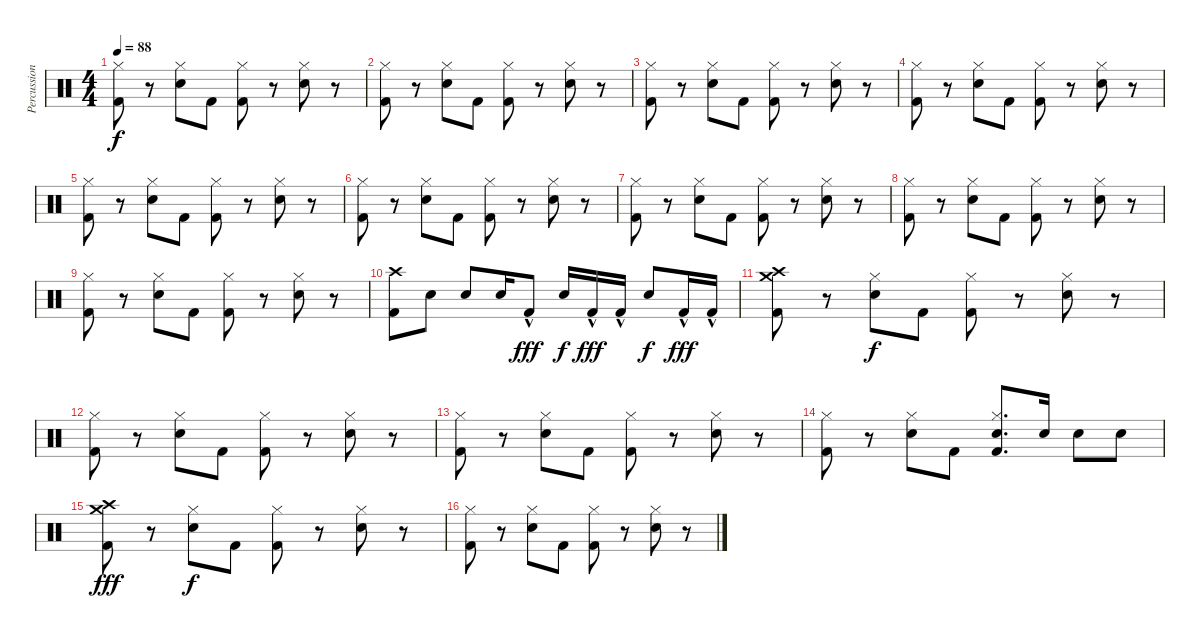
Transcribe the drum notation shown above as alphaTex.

\track ("Percussion" "Percussion") {instrument percussion}
\staff {score}
\articulation defaults
\ts (4 4)
\tempo 88
\clef neutral
\ks c
("Kick (hit) 2" "Hi-Hat (closed)").8{dy f} r.8 ("Snare (hit) 2" "Hi-Hat (closed)").8 "Kick (hit) 2".8 ("Kick (hit) 2" "Hi-Hat (closed)").8 r.8 ("Snare (hit) 2" "Hi-Hat (closed)").8 r.8 |
("Kick (hit) 2" "Hi-Hat (closed)").8 r.8 ("Snare (hit) 2" "Hi-Hat (closed)").8 "Kick (hit) 2".8 ("Kick (hit) 2" "Hi-Hat (closed)").8 r.8 ("Snare (hit) 2" "Hi-Hat (closed)").8 r.8 |
("Kick (hit) 2" "Hi-Hat (closed)").8 r.8 ("Snare (hit) 2" "Hi-Hat (closed)").8 "Kick (hit) 2".8 ("Kick (hit) 2" "Hi-Hat (closed)").8 r.8 ("Snare (hit) 2" "Hi-Hat (closed)").8 r.8 |
("Kick (hit) 2" "Hi-Hat (closed)").8 r.8 ("Snare (hit) 2" "Hi-Hat (closed)").8 "Kick (hit) 2".8 ("Kick (hit) 2" "Hi-Hat (closed)").8 r.8 ("Snare (hit) 2" "Hi-Hat (closed)").8 r.8 |
("Kick (hit) 2" "Hi-Hat (closed)").8 r.8 ("Snare (hit) 2" "Hi-Hat (closed)").8 "Kick (hit) 2".8 ("Kick (hit) 2" "Hi-Hat (closed)").8 r.8 ("Snare (hit) 2" "Hi-Hat (closed)").8 r.8 |
("Kick (hit) 2" "Hi-Hat (closed)").8 r.8 ("Snare (hit) 2" "Hi-Hat (closed)").8 "Kick (hit) 2".8 ("Kick (hit) 2" "Hi-Hat (closed)").8 r.8 ("Snare (hit) 2" "Hi-Hat (closed)").8 r.8 |
("Kick (hit) 2" "Hi-Hat (closed)").8 r.8 ("Snare (hit) 2" "Hi-Hat (closed)").8 "Kick (hit) 2".8 ("Kick (hit) 2" "Hi-Hat (closed)").8 r.8 ("Snare (hit) 2" "Hi-Hat (closed)").8 r.8 |
("Kick (hit) 2" "Hi-Hat (closed)").8 r.8 ("Snare (hit) 2" "Hi-Hat (closed)").8 "Kick (hit) 2".8 ("Kick (hit) 2" "Hi-Hat (closed)").8 r.8 ("Snare (hit) 2" "Hi-Hat (closed)").8 r.8 |
("Kick (hit) 2" "Hi-Hat (closed)").8 r.8 ("Snare (hit) 2" "Hi-Hat (closed)").8 "Kick (hit) 2".8 ("Kick (hit) 2" "Hi-Hat (closed)").8 r.8 ("Snare (hit) 2" "Hi-Hat (closed)").8 r.8 |
("Crash high (hit)" "Kick (hit) 2").8 "Electric Snare (hit)".8 "Electric Snare (hit)".8 "Electric Snare (hit)".16 "Kick (hit) 2"{hac}.8{dy fff} "Electric Snare (hit)".16{dy f} "Kick (hit) 2"{hac}.16{dy fff} "Kick (hit) 2"{hac}.16 "Electric Snare (hit)".8{dy f} "Kick (hit) 2"{hac}.16{dy fff} "Kick (hit) 2"{hac}.16 |
("Kick (hit) 2" "Crash medium (hit)" "Crash high (hit)").8 r.8 ("Snare (hit) 2" "Hi-Hat (closed)").8{dy f} "Kick (hit) 2".8 ("Kick (hit) 2" "Hi-Hat (closed)").8 r.8 ("Snare (hit) 2" "Hi-Hat (closed)").8 r.8 |
("Kick (hit) 2" "Hi-Hat (closed)").8 r.8 ("Snare (hit) 2" "Hi-Hat (closed)").8 "Kick (hit) 2".8 ("Kick (hit) 2" "Hi-Hat (closed)").8 r.8 ("Snare (hit) 2" "Hi-Hat (closed)").8 r.8 |
("Kick (hit) 2" "Hi-Hat (closed)").8 r.8 ("Snare (hit) 2" "Hi-Hat (closed)").8 "Kick (hit) 2".8 ("Kick (hit) 2" "Hi-Hat (closed)").8 r.8 ("Snare (hit) 2" "Hi-Hat (closed)").8 r.8 |
("Kick (hit) 2" "Hi-Hat (closed)").8 r.8 ("Snare (hit) 2" "Hi-Hat (closed)").8 "Kick (hit) 2".8 ("Kick (hit) 2" "Snare (hit) 2" "Hi-Hat (closed)").8{d} "Snare (hit) 2".16 "Snare (hit) 2".8 "Snare (hit) 2".8 |
("Kick (hit) 2" "Crash medium (hit)" "Crash high (hit)").8{dy fff} r.8 ("Snare (hit) 2" "Hi-Hat (closed)").8{dy f} "Kick (hit) 2".8 ("Kick (hit) 2" "Hi-Hat (closed)").8 r.8 ("Snare (hit) 2" "Hi-Hat (closed)").8 r.8 |
("Kick (hit) 2" "Hi-Hat (closed)").8 r.8 ("Snare (hit) 2" "Hi-Hat (closed)").8 "Kick (hit) 2".8 ("Kick (hit) 2" "Hi-Hat (closed)").8 r.8 ("Snare (hit) 2" "Hi-Hat (closed)").8 r.8
